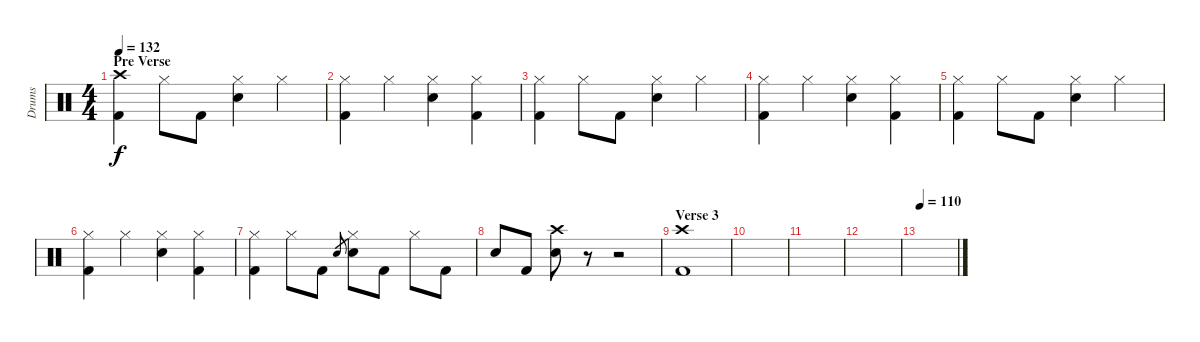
\track ("Drums" "Drums") {instrument percussion}
\staff {score}
\articulation defaults
\ts (4 4)
\section ("" "Pre Verse")
\tempo 132
\clef neutral
\ks c
("Crash high (hit)" "Kick (hit) 2").4{dy f} "Hi-Hat (closed)".8 "Kick (hit) 2".8 ("Hi-Hat (closed)" "Snare (hit) 2").4 "Hi-Hat (closed)".4 |
("Hi-Hat (closed)" "Kick (hit) 2").4 "Hi-Hat (closed)".4 ("Hi-Hat (closed)" "Snare (hit) 2").4 ("Hi-Hat (closed)" "Kick (hit) 2").4 |
("Hi-Hat (closed)" "Kick (hit) 2").4 "Hi-Hat (closed)".8 "Kick (hit) 2".8 ("Hi-Hat (closed)" "Snare (hit) 2").4 "Hi-Hat (closed)".4 |
("Hi-Hat (closed)" "Kick (hit) 2").4 "Hi-Hat (closed)".4 ("Hi-Hat (closed)" "Snare (hit) 2").4 ("Hi-Hat (closed)" "Kick (hit) 2").4 |
("Hi-Hat (closed)" "Kick (hit) 2").4 "Hi-Hat (closed)".8 "Kick (hit) 2".8 ("Hi-Hat (closed)" "Snare (hit) 2").4 "Hi-Hat (closed)".4 |
("Hi-Hat (closed)" "Kick (hit) 2").4 "Hi-Hat (closed)".4 ("Hi-Hat (closed)" "Snare (hit) 2").4 ("Hi-Hat (closed)" "Kick (hit) 2").4 |
("Hi-Hat (closed)" "Kick (hit) 2").4 "Hi-Hat (closed)".8 "Kick (hit) 2".8 "Snare (hit) 2".8{gr} ("Hi-Hat (closed)" "Snare (hit) 2").8 "Kick (hit) 2".8 "Hi-Hat (closed)".8 "Kick (hit) 2".8 |
"Snare (hit) 2".8 "Kick (hit) 2".8 ("Crash high (hit)" "Snare (hit) 2").8 r.8 r.2 |
\section ("" "Verse 3")
("Crash high (hit)" "Kick (hit) 2").1 |
|
|
|
\tempo 110
